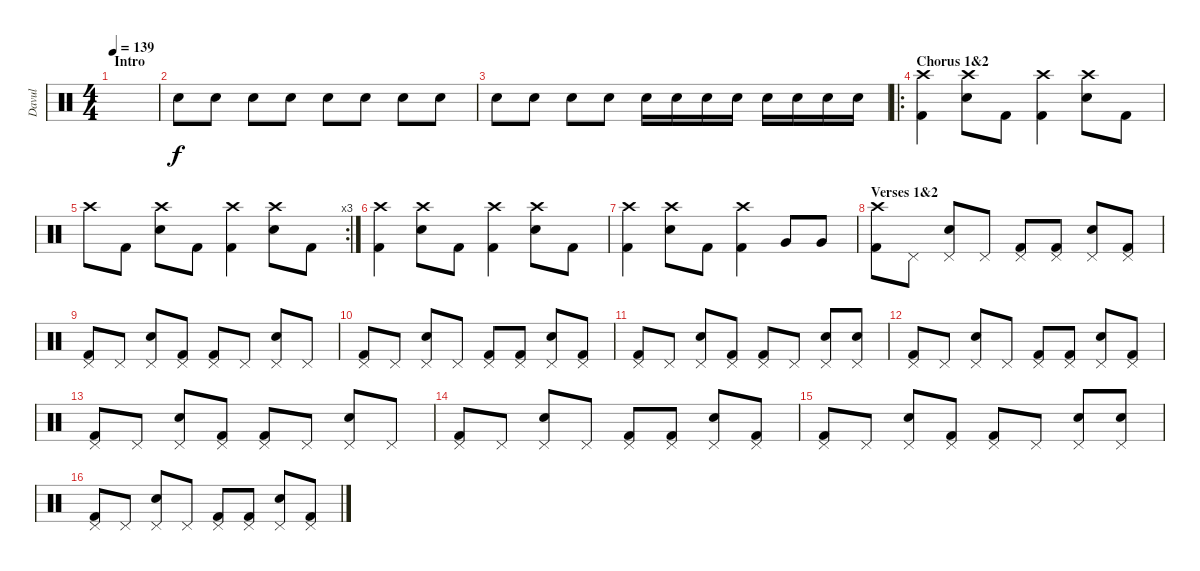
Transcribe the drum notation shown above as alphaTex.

\track ("Davul" "Davul") {instrument percussion}
\staff {score}
\articulation defaults
\ts (4 4)
\section ("" "Intro")
\tempo 139
\clef neutral
\ks c
|
"Snare (hit) 2".8 "Snare (hit) 2".8 "Snare (hit) 2".8 "Snare (hit) 2".8 "Snare (hit) 2".8 "Snare (hit) 2".8 "Snare (hit) 2".8 "Snare (hit) 2".8 |
"Snare (hit) 2".8 "Snare (hit) 2".8 "Snare (hit) 2".8 "Snare (hit) 2".8 "Snare (hit) 2".16 "Snare (hit) 2".16 "Snare (hit) 2".16 "Snare (hit) 2".16 "Snare (hit) 2".16 "Snare (hit) 2".16 "Snare (hit) 2".16 "Snare (hit) 2".16 |
\ro
\section ("" "Chorus 1&2")
("Crash high (hit)" "Kick (hit) 2").4 ("Crash high (hit)" "Snare (hit) 2").8 "Kick (hit) 2".8 ("Crash high (hit)" "Kick (hit) 2").4 ("Crash high (hit)" "Snare (hit) 2").8 "Kick (hit) 2".8 |
\rc 3 "Crash high (hit)".8 "Kick (hit) 2".8
("Crash high (hit)" "Snare (hit) 2").8 "Kick (hit) 2".8 ("Crash high (hit)" "Kick (hit) 2").4 ("Crash high (hit)" "Snare (hit) 2").8 "Kick (hit) 2".8 |
("Crash high (hit)" "Kick (hit) 2").4 ("Crash high (hit)" "Snare (hit) 2").8 "Kick (hit) 2".8 ("Crash high (hit)" "Kick (hit) 2").4 ("Crash high (hit)" "Snare (hit) 2").8 "Kick (hit) 2".8 |
("Crash high (hit)" "Kick (hit) 2").4 ("Crash high (hit)" "Snare (hit) 2").8 "Kick (hit) 2".8 ("Crash high (hit)" "Kick (hit) 2").4 "Very Low Tom (hit)".8 "Very Low Tom (hit)".8 |
\section ("" "Verses 1&2")
("Crash high (hit)" "Kick (hit) 2").8 "Pedal Hi-Hat (hit)".8 ("Pedal Hi-Hat (hit)" "Snare (hit) 2").8 "Pedal Hi-Hat (hit)".8 ("Pedal Hi-Hat (hit)" "Kick (hit) 2").8 ("Pedal Hi-Hat (hit)" "Kick (hit) 2").8 ("Pedal Hi-Hat (hit)" "Snare (hit) 2").8 ("Pedal Hi-Hat (hit)" "Kick (hit) 2").8 |
("Pedal Hi-Hat (hit)" "Kick (hit) 2").8 "Pedal Hi-Hat (hit)".8 ("Pedal Hi-Hat (hit)" "Snare (hit) 2").8 ("Pedal Hi-Hat (hit)" "Kick (hit) 2").8 ("Pedal Hi-Hat (hit)" "Kick (hit) 2").8 "Pedal Hi-Hat (hit)".8 ("Pedal Hi-Hat (hit)" "Snare (hit) 2").8 "Pedal Hi-Hat (hit)".8 |
("Pedal Hi-Hat (hit)" "Kick (hit) 2").8 "Pedal Hi-Hat (hit)".8 ("Pedal Hi-Hat (hit)" "Snare (hit) 2").8 "Pedal Hi-Hat (hit)".8 ("Pedal Hi-Hat (hit)" "Kick (hit) 2").8 ("Pedal Hi-Hat (hit)" "Kick (hit) 2").8 ("Pedal Hi-Hat (hit)" "Snare (hit) 2").8 ("Pedal Hi-Hat (hit)" "Kick (hit) 2").8 |
("Pedal Hi-Hat (hit)" "Kick (hit) 2").8 "Pedal Hi-Hat (hit)".8 ("Pedal Hi-Hat (hit)" "Snare (hit) 2").8 ("Pedal Hi-Hat (hit)" "Kick (hit) 2").8 ("Pedal Hi-Hat (hit)" "Kick (hit) 2").8 "Pedal Hi-Hat (hit)".8 ("Pedal Hi-Hat (hit)" "Snare (hit) 2").8 ("Pedal Hi-Hat (hit)" "Snare (hit) 2").8 |
("Pedal Hi-Hat (hit)" "Kick (hit) 2").8 "Pedal Hi-Hat (hit)".8 ("Pedal Hi-Hat (hit)" "Snare (hit) 2").8 "Pedal Hi-Hat (hit)".8 ("Pedal Hi-Hat (hit)" "Kick (hit) 2").8 ("Pedal Hi-Hat (hit)" "Kick (hit) 2").8 ("Pedal Hi-Hat (hit)" "Snare (hit) 2").8 ("Pedal Hi-Hat (hit)" "Kick (hit) 2").8 |
("Pedal Hi-Hat (hit)" "Kick (hit) 2").8 "Pedal Hi-Hat (hit)".8 ("Pedal Hi-Hat (hit)" "Snare (hit) 2").8 ("Pedal Hi-Hat (hit)" "Kick (hit) 2").8 ("Pedal Hi-Hat (hit)" "Kick (hit) 2").8 "Pedal Hi-Hat (hit)".8 ("Pedal Hi-Hat (hit)" "Snare (hit) 2").8 "Pedal Hi-Hat (hit)".8 |
("Pedal Hi-Hat (hit)" "Kick (hit) 2").8 "Pedal Hi-Hat (hit)".8 ("Pedal Hi-Hat (hit)" "Snare (hit) 2").8 "Pedal Hi-Hat (hit)".8 ("Pedal Hi-Hat (hit)" "Kick (hit) 2").8 ("Pedal Hi-Hat (hit)" "Kick (hit) 2").8 ("Pedal Hi-Hat (hit)" "Snare (hit) 2").8 ("Pedal Hi-Hat (hit)" "Kick (hit) 2").8 |
("Pedal Hi-Hat (hit)" "Kick (hit) 2").8 "Pedal Hi-Hat (hit)".8 ("Pedal Hi-Hat (hit)" "Snare (hit) 2").8 ("Pedal Hi-Hat (hit)" "Kick (hit) 2").8 ("Pedal Hi-Hat (hit)" "Kick (hit) 2").8 "Pedal Hi-Hat (hit)".8 ("Pedal Hi-Hat (hit)" "Snare (hit) 2").8 ("Pedal Hi-Hat (hit)" "Snare (hit) 2").8 |
("Pedal Hi-Hat (hit)" "Kick (hit) 2").8 "Pedal Hi-Hat (hit)".8 ("Pedal Hi-Hat (hit)" "Snare (hit) 2").8 "Pedal Hi-Hat (hit)".8 ("Pedal Hi-Hat (hit)" "Kick (hit) 2").8 ("Pedal Hi-Hat (hit)" "Kick (hit) 2").8 ("Pedal Hi-Hat (hit)" "Snare (hit) 2").8 ("Pedal Hi-Hat (hit)" "Kick (hit) 2").8
